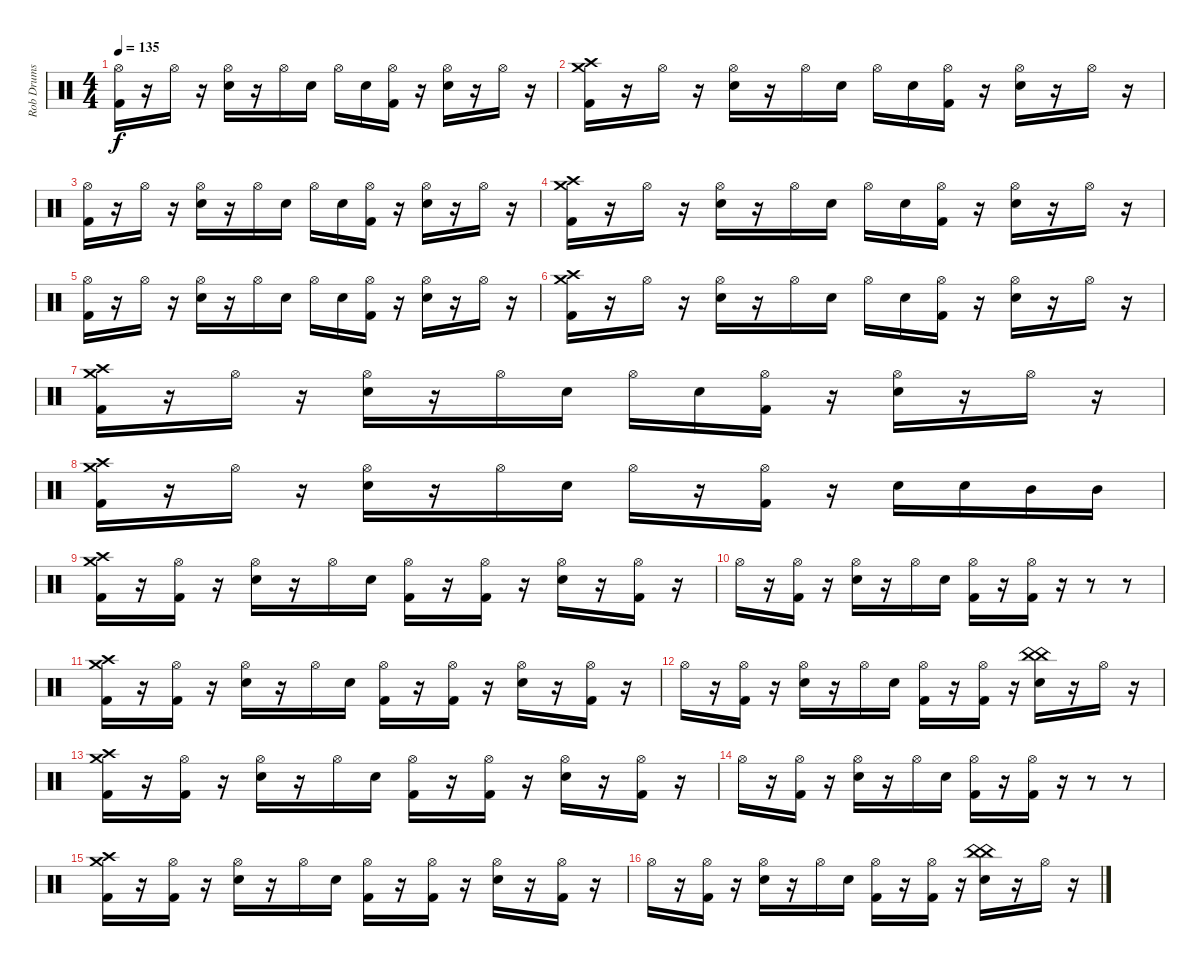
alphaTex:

\track ("Rob Drums" "Rob Drums") {instrument percussion}
\staff {score}
\articulation defaults
\ts (4 4)
\tempo 135
\clef neutral
\ks c
("Hi-Hat (open)" "Kick (hit) 2").16{dy f} r.16 "Hi-Hat (open)".16 r.16 ("Hi-Hat (open)" "Electric Snare (hit)").16 r.16 "Hi-Hat (open)".16 "Electric Snare (hit)".16 "Hi-Hat (open)".16 "Electric Snare (hit)".16 ("Hi-Hat (open)" "Kick (hit) 2").16 r.16 ("Hi-Hat (open)" "Electric Snare (hit)").16 r.16 "Hi-Hat (open)".16 r.16 |
("Crash high (hit)" "Crash medium (hit)" "Kick (hit) 2").16 r.16 "Hi-Hat (open)".16 r.16 ("Hi-Hat (open)" "Electric Snare (hit)").16 r.16 "Hi-Hat (open)".16 "Electric Snare (hit)".16 "Hi-Hat (open)".16 "Electric Snare (hit)".16 ("Hi-Hat (open)" "Kick (hit) 2").16 r.16 ("Hi-Hat (open)" "Electric Snare (hit)").16 r.16 "Hi-Hat (open)".16 r.16 |
("Hi-Hat (open)" "Kick (hit) 2").16 r.16 "Hi-Hat (open)".16 r.16 ("Hi-Hat (open)" "Electric Snare (hit)").16 r.16 "Hi-Hat (open)".16 "Electric Snare (hit)".16 "Hi-Hat (open)".16 "Electric Snare (hit)".16 ("Hi-Hat (open)" "Kick (hit) 2").16 r.16 ("Hi-Hat (open)" "Electric Snare (hit)").16 r.16 "Hi-Hat (open)".16 r.16 |
("Crash high (hit)" "Crash medium (hit)" "Kick (hit) 2").16 r.16 "Hi-Hat (open)".16 r.16 ("Hi-Hat (open)" "Electric Snare (hit)").16 r.16 "Hi-Hat (open)".16 "Electric Snare (hit)".16 "Hi-Hat (open)".16 "Electric Snare (hit)".16 ("Hi-Hat (open)" "Kick (hit) 2").16 r.16 ("Hi-Hat (open)" "Electric Snare (hit)").16 r.16 "Hi-Hat (open)".16 r.16 |
("Hi-Hat (open)" "Kick (hit) 2").16 r.16 "Hi-Hat (open)".16 r.16 ("Hi-Hat (open)" "Electric Snare (hit)").16 r.16 "Hi-Hat (open)".16 "Electric Snare (hit)".16 "Hi-Hat (open)".16 "Electric Snare (hit)".16 ("Hi-Hat (open)" "Kick (hit) 2").16 r.16 ("Hi-Hat (open)" "Electric Snare (hit)").16 r.16 "Hi-Hat (open)".16 r.16 |
("Crash high (hit)" "Crash medium (hit)" "Kick (hit) 2").16 r.16 "Hi-Hat (open)".16 r.16 ("Hi-Hat (open)" "Electric Snare (hit)").16 r.16 "Hi-Hat (open)".16 "Electric Snare (hit)".16 "Hi-Hat (open)".16 "Electric Snare (hit)".16 ("Hi-Hat (open)" "Kick (hit) 2").16 r.16 ("Hi-Hat (open)" "Electric Snare (hit)").16 r.16 "Hi-Hat (open)".16 r.16 |
("Crash high (hit)" "Crash medium (hit)" "Kick (hit) 2").16 r.16 "Hi-Hat (open)".16 r.16 ("Hi-Hat (open)" "Electric Snare (hit)").16 r.16 "Hi-Hat (open)".16 "Electric Snare (hit)".16 "Hi-Hat (open)".16 "Electric Snare (hit)".16 ("Hi-Hat (open)" "Kick (hit) 2").16 r.16 ("Hi-Hat (open)" "Electric Snare (hit)").16 r.16 "Hi-Hat (open)".16 r.16 |
("Crash high (hit)" "Crash medium (hit)" "Kick (hit) 2").16 r.16 "Hi-Hat (open)".16 r.16 ("Hi-Hat (open)" "Electric Snare (hit)").16 r.16 "Hi-Hat (open)".16 "Electric Snare (hit)".16 "Hi-Hat (open)".16 r.16 ("Hi-Hat (open)" "Kick (hit) 2").16 r.16 "Electric Snare (hit)".16 "Electric Snare (hit)".16 "Mid Tom (hit)".16 "Mid Tom (hit)".16 |
("Crash high (hit)" "Crash medium (hit)" "Kick (hit) 2").16 r.16 ("Hi-Hat (open)" "Kick (hit) 2").16 r.16 ("Hi-Hat (open)" "Electric Snare (hit)").16 r.16 "Hi-Hat (open)".16 "Electric Snare (hit)".16 ("Hi-Hat (open)" "Kick (hit) 2").16 r.16 ("Hi-Hat (open)" "Kick (hit) 2").16 r.16 ("Hi-Hat (open)" "Electric Snare (hit)").16 r.16 ("Hi-Hat (open)" "Kick (hit) 2").16 r.16 |
"Hi-Hat (open)".16 r.16 ("Hi-Hat (open)" "Kick (hit) 2").16 r.16 ("Hi-Hat (open)" "Electric Snare (hit)").16 r.16 "Hi-Hat (open)".16 "Electric Snare (hit)".16 ("Hi-Hat (open)" "Kick (hit) 2").16 r.16 ("Hi-Hat (open)" "Kick (hit) 2").16 r.16 r.8 r.8 |
("Crash high (hit)" "Crash medium (hit)" "Kick (hit) 2").16 r.16 ("Hi-Hat (open)" "Kick (hit) 2").16 r.16 ("Hi-Hat (open)" "Electric Snare (hit)").16 r.16 "Hi-Hat (open)".16 "Electric Snare (hit)".16 ("Hi-Hat (open)" "Kick (hit) 2").16 r.16 ("Hi-Hat (open)" "Kick (hit) 2").16 r.16 ("Hi-Hat (open)" "Electric Snare (hit)").16 r.16 ("Hi-Hat (open)" "Kick (hit) 2").16 r.16 |
"Hi-Hat (open)".16 r.16 ("Hi-Hat (open)" "Kick (hit) 2").16 r.16 ("Hi-Hat (open)" "Electric Snare (hit)").16 r.16 "Hi-Hat (open)".16 "Electric Snare (hit)".16 ("Hi-Hat (open)" "Kick (hit) 2").16 r.16 ("Hi-Hat (open)" "Kick (hit) 2").16 r.16 ("China (hit)" "China (hit)" "Electric Snare (hit)").16 r.16 "Hi-Hat (open)".16 r.16 |
("Crash high (hit)" "Crash medium (hit)" "Kick (hit) 2").16 r.16 ("Hi-Hat (open)" "Kick (hit) 2").16 r.16 ("Hi-Hat (open)" "Electric Snare (hit)").16 r.16 "Hi-Hat (open)".16 "Electric Snare (hit)".16 ("Hi-Hat (open)" "Kick (hit) 2").16 r.16 ("Hi-Hat (open)" "Kick (hit) 2").16 r.16 ("Hi-Hat (open)" "Electric Snare (hit)").16 r.16 ("Hi-Hat (open)" "Kick (hit) 2").16 r.16 |
"Hi-Hat (open)".16 r.16 ("Hi-Hat (open)" "Kick (hit) 2").16 r.16 ("Hi-Hat (open)" "Electric Snare (hit)").16 r.16 "Hi-Hat (open)".16 "Electric Snare (hit)".16 ("Hi-Hat (open)" "Kick (hit) 2").16 r.16 ("Hi-Hat (open)" "Kick (hit) 2").16 r.16 r.8 r.8 |
("Crash high (hit)" "Crash medium (hit)" "Kick (hit) 2").16 r.16 ("Hi-Hat (open)" "Kick (hit) 2").16 r.16 ("Hi-Hat (open)" "Electric Snare (hit)").16 r.16 "Hi-Hat (open)".16 "Electric Snare (hit)".16 ("Hi-Hat (open)" "Kick (hit) 2").16 r.16 ("Hi-Hat (open)" "Kick (hit) 2").16 r.16 ("Hi-Hat (open)" "Electric Snare (hit)").16 r.16 ("Hi-Hat (open)" "Kick (hit) 2").16 r.16 |
"Hi-Hat (open)".16 r.16 ("Hi-Hat (open)" "Kick (hit) 2").16 r.16 ("Hi-Hat (open)" "Electric Snare (hit)").16 r.16 "Hi-Hat (open)".16 "Electric Snare (hit)".16 ("Hi-Hat (open)" "Kick (hit) 2").16 r.16 ("Hi-Hat (open)" "Kick (hit) 2").16 r.16 ("China (hit)" "China (hit)" "Electric Snare (hit)").16 r.16 "Hi-Hat (open)".16 r.16
